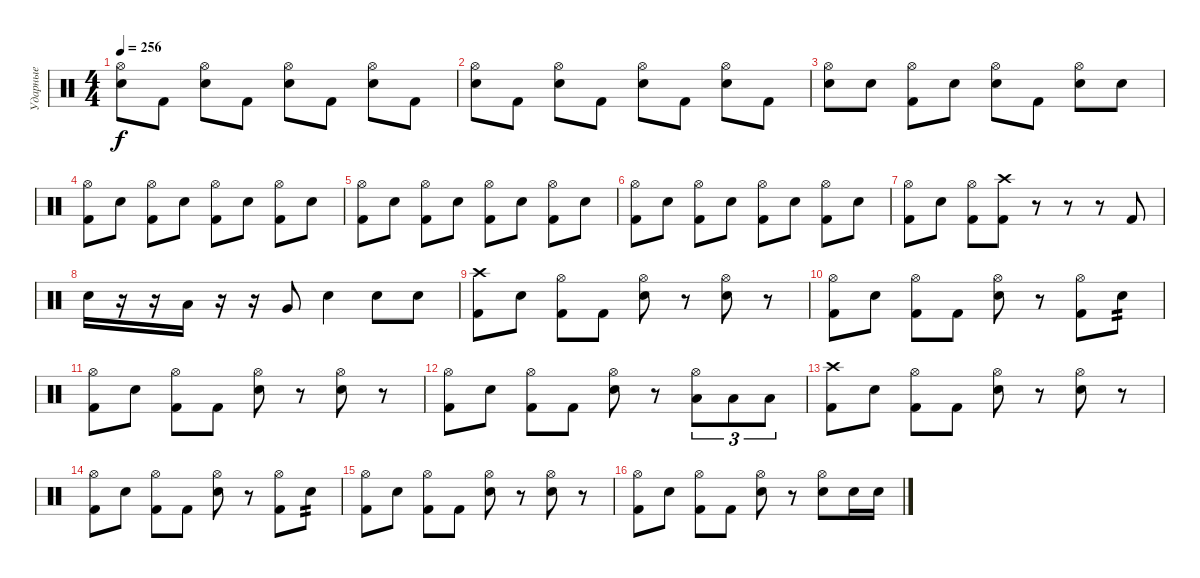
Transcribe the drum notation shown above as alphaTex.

\track ("Ударные" "Ударные") {instrument percussion}
\staff {score}
\articulation defaults
\ts (4 4)
\tempo 256
\clef neutral
\ks c
("Hi-Hat (open)" "Electric Snare (hit)").8{dy f} "Kick (hit) 2".8 ("Hi-Hat (open)" "Electric Snare (hit)").8 "Kick (hit) 2".8 ("Hi-Hat (open)" "Electric Snare (hit)").8 "Kick (hit) 2".8 ("Hi-Hat (open)" "Electric Snare (hit)").8 "Kick (hit) 2".8 |
("Hi-Hat (open)" "Electric Snare (hit)").8 "Kick (hit) 2".8 ("Hi-Hat (open)" "Electric Snare (hit)").8 "Kick (hit) 2".8 ("Hi-Hat (open)" "Electric Snare (hit)").8 "Kick (hit) 2".8 ("Hi-Hat (open)" "Electric Snare (hit)").8 "Kick (hit) 2".8 |
("Hi-Hat (open)" "Electric Snare (hit)").8 "Electric Snare (hit)".8 ("Hi-Hat (open)" "Kick (hit) 2").8 "Electric Snare (hit)".8 ("Hi-Hat (open)" "Electric Snare (hit)").8 "Kick (hit) 2".8 ("Hi-Hat (open)" "Electric Snare (hit)").8 "Electric Snare (hit)".8 |
("Hi-Hat (open)" "Kick (hit) 2").8 "Electric Snare (hit)".8 ("Hi-Hat (open)" "Kick (hit) 2").8 "Electric Snare (hit)".8 ("Hi-Hat (open)" "Kick (hit) 2").8 "Electric Snare (hit)".8 ("Hi-Hat (open)" "Kick (hit) 2").8 "Electric Snare (hit)".8 |
("Hi-Hat (open)" "Kick (hit) 2").8 "Electric Snare (hit)".8 ("Hi-Hat (open)" "Kick (hit) 2").8 "Electric Snare (hit)".8 ("Hi-Hat (open)" "Kick (hit) 2").8 "Electric Snare (hit)".8 ("Hi-Hat (open)" "Kick (hit) 2").8 "Electric Snare (hit)".8 |
("Hi-Hat (open)" "Kick (hit) 2").8 "Electric Snare (hit)".8 ("Hi-Hat (open)" "Kick (hit) 2").8 "Electric Snare (hit)".8 ("Hi-Hat (open)" "Kick (hit) 2").8 "Electric Snare (hit)".8 ("Hi-Hat (open)" "Kick (hit) 2").8 "Electric Snare (hit)".8 |
("Hi-Hat (open)" "Kick (hit) 2").8 "Electric Snare (hit)".8 ("Hi-Hat (open)" "Kick (hit) 2").8 ("Crash high (hit)" "Kick (hit) 2").8 r.8 r.8 r.8 "Kick (hit) 2".8 |
"Electric Snare (hit)".16 r.16 r.16 "Low Tom (hit)".16 r.16 r.16 "Very Low Tom (hit)".8 "Electric Snare (hit)".4 "Electric Snare (hit)".8 "Electric Snare (hit)".8 |
("Crash high (hit)" "Kick (hit) 2").8 "Electric Snare (hit)".8 ("Hi-Hat (open)" "Kick (hit) 2").8 "Kick (hit) 2".8 ("Hi-Hat (open)" "Electric Snare (hit)").8 r.8 ("Hi-Hat (open)" "Electric Snare (hit)").8 r.8 |
("Hi-Hat (open)" "Kick (hit) 2").8 "Electric Snare (hit)".8 ("Hi-Hat (open)" "Kick (hit) 2").8 "Kick (hit) 2".8 ("Hi-Hat (open)" "Electric Snare (hit)").8 r.8 ("Hi-Hat (open)" "Kick (hit) 2").8 "Electric Snare (hit)".8{tp 2} |
("Hi-Hat (open)" "Kick (hit) 2").8 "Electric Snare (hit)".8 ("Hi-Hat (open)" "Kick (hit) 2").8 "Kick (hit) 2".8 ("Hi-Hat (open)" "Electric Snare (hit)").8 r.8 ("Hi-Hat (open)" "Electric Snare (hit)").8 r.8 |
("Hi-Hat (open)" "Kick (hit) 2").8 "Electric Snare (hit)".8 ("Hi-Hat (open)" "Kick (hit) 2").8 "Kick (hit) 2".8 ("Hi-Hat (open)" "Electric Snare (hit)").8 r.8 ("Hi-Hat (open)" "Low Tom (hit)").8{tu (3 2)} "Low Tom (hit)".8{tu (3 2)} "Low Tom (hit)".8{tu (3 2)} |
("Crash high (hit)" "Kick (hit) 2").8 "Electric Snare (hit)".8 ("Hi-Hat (open)" "Kick (hit) 2").8 "Kick (hit) 2".8 ("Hi-Hat (open)" "Electric Snare (hit)").8 r.8 ("Hi-Hat (open)" "Electric Snare (hit)").8 r.8 |
("Hi-Hat (open)" "Kick (hit) 2").8 "Electric Snare (hit)".8 ("Hi-Hat (open)" "Kick (hit) 2").8 "Kick (hit) 2".8 ("Hi-Hat (open)" "Electric Snare (hit)").8 r.8 ("Hi-Hat (open)" "Kick (hit) 2").8 "Electric Snare (hit)".8{tp 2} |
("Hi-Hat (open)" "Kick (hit) 2").8 "Electric Snare (hit)".8 ("Hi-Hat (open)" "Kick (hit) 2").8 "Kick (hit) 2".8 ("Hi-Hat (open)" "Electric Snare (hit)").8 r.8 ("Hi-Hat (open)" "Electric Snare (hit)").8 r.8 |
("Hi-Hat (open)" "Kick (hit) 2").8 "Electric Snare (hit)".8 ("Hi-Hat (open)" "Kick (hit) 2").8 "Kick (hit) 2".8 ("Hi-Hat (open)" "Electric Snare (hit)").8 r.8 ("Hi-Hat (open)" "Snare (hit) 2").8 "Snare (hit) 2".16 "Snare (hit) 2".16
